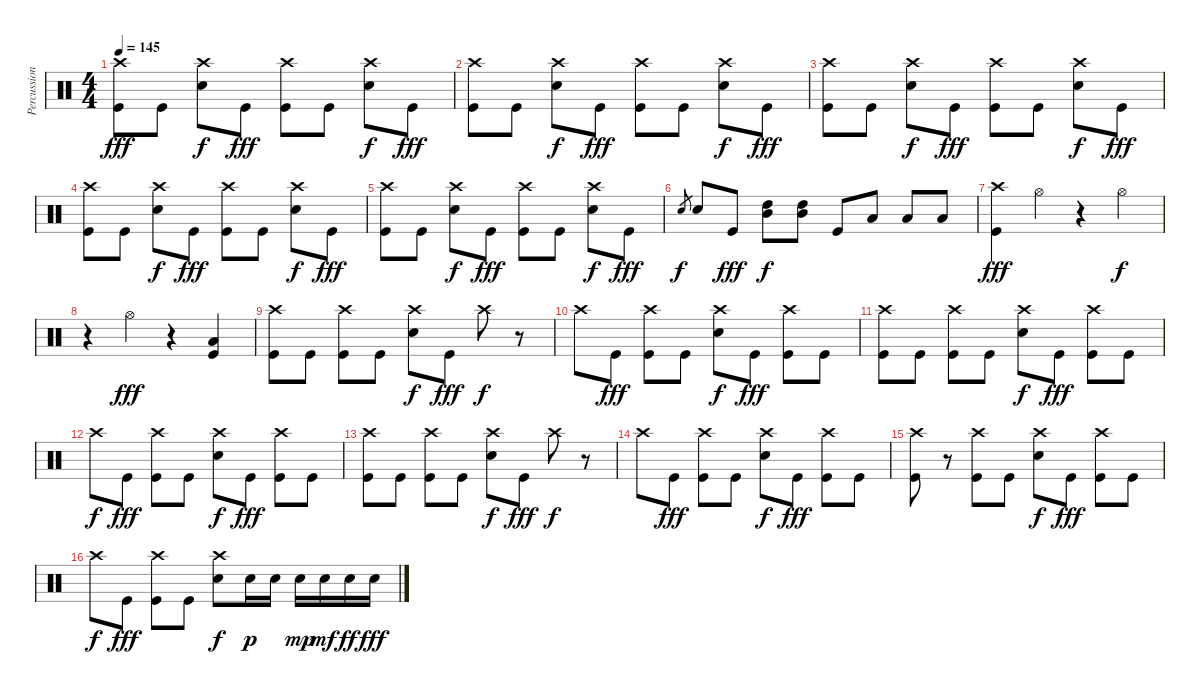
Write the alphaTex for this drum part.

\track ("Percussion" "Percussion") {instrument percussion}
\staff {score}
\articulation defaults
\ts (4 4)
\tempo 145
\clef neutral
\ks c
("Crash high (hit)" "Kick (hit)").8{dy fff} "Kick (hit)".8 ("Crash high (hit)" "Electric Snare (hit)").8{dy f} "Kick (hit)".8{dy fff} ("Crash high (hit)" "Kick (hit)").8 "Kick (hit)".8 ("Crash high (hit)" "Electric Snare (hit)").8{dy f} "Kick (hit)".8{dy fff} |
("Crash high (hit)" "Kick (hit)").8 "Kick (hit)".8 ("Crash high (hit)" "Electric Snare (hit)").8{dy f} "Kick (hit)".8{dy fff} ("Crash high (hit)" "Kick (hit)").8 "Kick (hit)".8 ("Crash high (hit)" "Electric Snare (hit)").8{dy f} "Kick (hit)".8{dy fff} |
("Crash high (hit)" "Kick (hit)").8 "Kick (hit)".8 ("Crash high (hit)" "Electric Snare (hit)").8{dy f} "Kick (hit)".8{dy fff} ("Crash high (hit)" "Kick (hit)").8 "Kick (hit)".8 ("Crash high (hit)" "Electric Snare (hit)").8{dy f} "Kick (hit)".8{dy fff} |
("Crash high (hit)" "Kick (hit)").8 "Kick (hit)".8 ("Crash high (hit)" "Electric Snare (hit)").8{dy f} "Kick (hit)".8{dy fff} ("Crash high (hit)" "Kick (hit)").8 "Kick (hit)".8 ("Crash high (hit)" "Electric Snare (hit)").8{dy f} "Kick (hit)".8{dy fff} |
("Crash high (hit)" "Kick (hit)").8 "Kick (hit)".8 ("Crash high (hit)" "Electric Snare (hit)").8{dy f} "Kick (hit)".8{dy fff} ("Crash high (hit)" "Kick (hit)").8 "Kick (hit)".8 ("Crash high (hit)" "Electric Snare (hit)").8{dy f} "Kick (hit)".8{dy fff} |
"Electric Snare (hit)".8{gr dy f} "Electric Snare (hit)".8 "Kick (hit)".8{dy fff} ("High Tom (hit)" "Mid Tom (hit)").8{dy f} ("High Tom (hit)" "Mid Tom (hit)").8 "Kick (hit)".8 "Low Floor Tom (hit)".8 "Low Floor Tom (hit)".8 "Low Floor Tom (hit)".8 |
("Crash high (hit)" "Kick (hit)").4{dy fff} "Hi-Hat (open)".4 r.4 "Hi-Hat (open)".4{dy f} |
r.4 "Hi-Hat (open)".4{dy fff} r.4 ("Low Floor Tom (hit)" "Kick (hit)").4 |
("Crash high (hit)" "Kick (hit)").8 "Kick (hit)".8 ("Crash high (hit)" "Kick (hit)").8 "Kick (hit)".8 ("Crash high (hit)" "Electric Snare (hit)").8{dy f} "Kick (hit)".8{dy fff} "Crash high (hit)".8{dy f} r.8 |
"Crash high (hit)".8 "Kick (hit)".8{dy fff} ("Crash high (hit)" "Kick (hit)").8 "Kick (hit)".8 ("Crash high (hit)" "Electric Snare (hit)").8{dy f} "Kick (hit)".8{dy fff} ("Crash high (hit)" "Kick (hit)").8 "Kick (hit)".8 |
("Crash high (hit)" "Kick (hit)").8 "Kick (hit)".8 ("Crash high (hit)" "Kick (hit)").8 "Kick (hit)".8 ("Crash high (hit)" "Electric Snare (hit)").8{dy f} "Kick (hit)".8{dy fff} ("Crash high (hit)" "Kick (hit)").8 "Kick (hit)".8 |
"Crash high (hit)".8{dy f} "Kick (hit)".8{dy fff} ("Crash high (hit)" "Kick (hit)").8 "Kick (hit)".8 ("Crash high (hit)" "Electric Snare (hit)").8{dy f} "Kick (hit)".8{dy fff} ("Crash high (hit)" "Kick (hit)").8 "Kick (hit)".8 |
("Crash high (hit)" "Kick (hit)").8 "Kick (hit)".8 ("Crash high (hit)" "Kick (hit)").8 "Kick (hit)".8 ("Crash high (hit)" "Electric Snare (hit)").8{dy f} "Kick (hit)".8{dy fff} "Crash high (hit)".8{dy f} r.8 |
"Crash high (hit)".8 "Kick (hit)".8{dy fff} ("Crash high (hit)" "Kick (hit)").8 "Kick (hit)".8 ("Crash high (hit)" "Electric Snare (hit)").8{dy f} "Kick (hit)".8{dy fff} ("Crash high (hit)" "Kick (hit)").8 "Kick (hit)".8 |
("Crash high (hit)" "Kick (hit)").8 r.8 ("Crash high (hit)" "Kick (hit)").8 "Kick (hit)".8 ("Crash high (hit)" "Electric Snare (hit)").8{dy f} "Kick (hit)".8{dy fff} ("Crash high (hit)" "Kick (hit)").8 "Kick (hit)".8 |
"Crash high (hit)".8{dy f} "Kick (hit)".8{dy fff} ("Crash high (hit)" "Kick (hit)").8 "Kick (hit)".8 ("Crash high (hit)" "Electric Snare (hit)").8{dy f} "Electric Snare (hit)".16{dy p} "Electric Snare (hit)".16 "Electric Snare (hit)".16{dy mp} "Electric Snare (hit)".16{dy mf} "Electric Snare (hit)".16{dy ff} "Electric Snare (hit)".16{dy fff}
